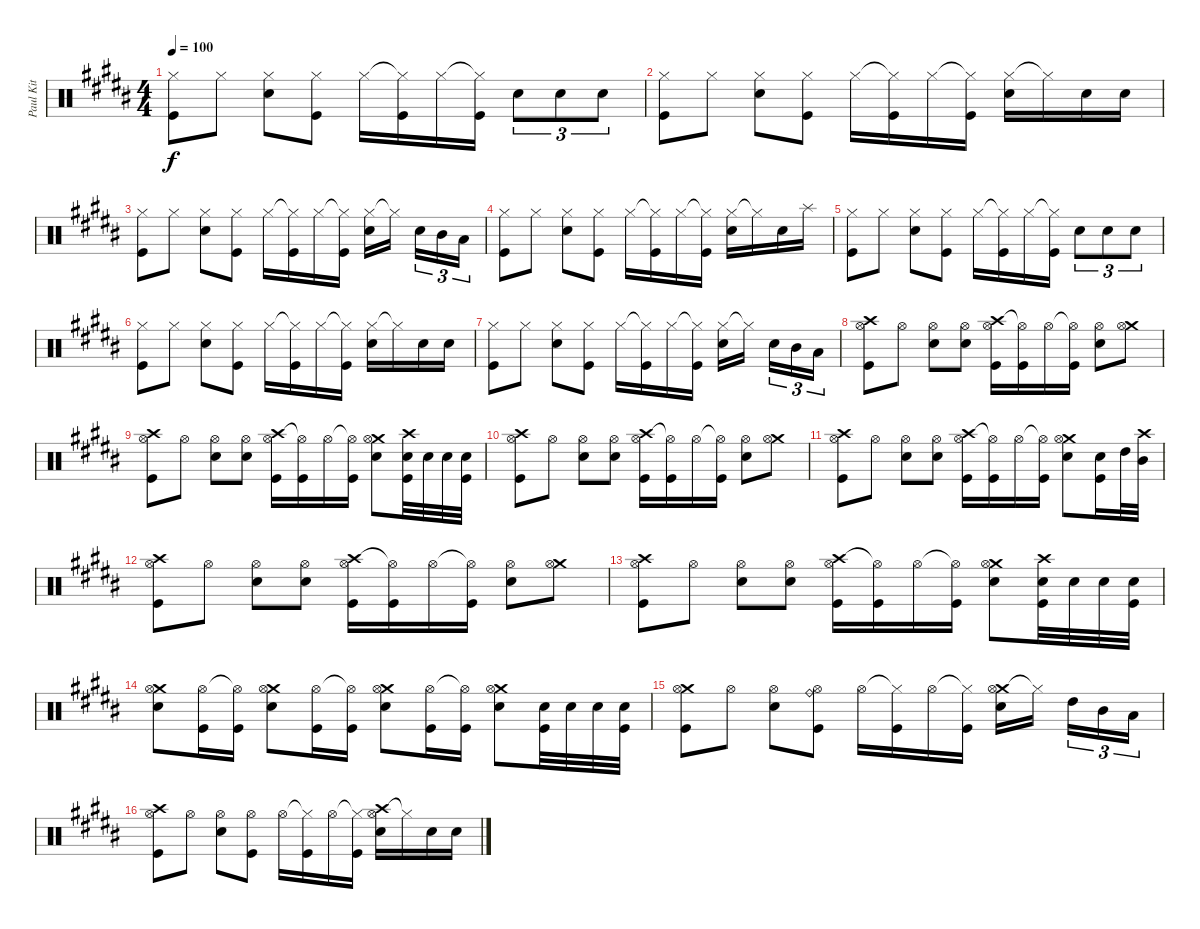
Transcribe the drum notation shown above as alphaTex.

\track ("Paul Kit" "Paul Kit") {instrument percussion}
\staff {score}
\articulation defaults
\ts (4 4)
\tempo 100
\clef neutral
\ks b
("Hi-Hat (closed)" "Kick (hit)").8{dy f} "Hi-Hat (closed)".8 ("Hi-Hat (closed)" "Snare (hit) 2").8 ("Hi-Hat (closed)" "Kick (hit)").8 "Hi-Hat (closed)".16 ("Hi-Hat (closed)"{t} "Kick (hit)").16 "Hi-Hat (closed)".16 ("Hi-Hat (closed)"{t} "Kick (hit)").16 "Snare (hit) 2".8{tu (3 2)} "Snare (hit) 2".8{tu (3 2)} "Snare (hit) 2".8{tu (3 2)} |
("Hi-Hat (closed)" "Kick (hit)").8 "Hi-Hat (closed)".8 ("Hi-Hat (closed)" "Snare (hit) 2").8 ("Hi-Hat (closed)" "Kick (hit)").8 "Hi-Hat (closed)".16 ("Hi-Hat (closed)"{t} "Kick (hit)").16 "Hi-Hat (closed)".16 ("Hi-Hat (closed)"{t} "Kick (hit)").16 ("Hi-Hat (closed)" "Snare (hit) 2").16 "Hi-Hat (closed)"{t}.16 "Snare (hit) 2".16 "Snare (hit) 2".16 |
("Hi-Hat (closed)" "Kick (hit)").8 "Hi-Hat (closed)".8 ("Hi-Hat (closed)" "Snare (hit) 2").8 ("Hi-Hat (closed)" "Kick (hit)").8 "Hi-Hat (closed)".16 ("Hi-Hat (closed)"{t} "Kick (hit)").16 "Hi-Hat (closed)".16 ("Hi-Hat (closed)"{t} "Kick (hit)").16 ("Hi-Hat (closed)" "Snare (hit) 2").16 "Hi-Hat (closed)"{t}.16 "Snare (hit) 2".16{tu (3 2)} "Mid Tom (hit)".16{tu (3 2)} "Low Tom (hit)".16{tu (3 2)} |
("Hi-Hat (closed)" "Kick (hit)").8 "Hi-Hat (closed)".8 ("Hi-Hat (closed)" "Snare (hit) 2").8 ("Hi-Hat (closed)" "Kick (hit)").8 "Hi-Hat (closed)".16 ("Hi-Hat (closed)"{t} "Kick (hit)").16 "Hi-Hat (closed)".16 ("Hi-Hat (closed)"{t} "Kick (hit)").16 ("Hi-Hat (closed)" "Snare (hit) 2").16 "Hi-Hat (closed)"{t}.16 "Snare (hit) 2".16 "Splash (hit)".16 |
("Hi-Hat (closed)" "Kick (hit)").8 "Hi-Hat (closed)".8 ("Hi-Hat (closed)" "Snare (hit) 2").8 ("Hi-Hat (closed)" "Kick (hit)").8 "Hi-Hat (closed)".16 ("Hi-Hat (closed)"{t} "Kick (hit)").16 "Hi-Hat (closed)".16 ("Hi-Hat (closed)"{t} "Kick (hit)").16 "Snare (hit) 2".8{tu (3 2)} "Snare (hit) 2".8{tu (3 2)} "Snare (hit) 2".8{tu (3 2)} |
("Hi-Hat (closed)" "Kick (hit)").8 "Hi-Hat (closed)".8 ("Hi-Hat (closed)" "Snare (hit) 2").8 ("Hi-Hat (closed)" "Kick (hit)").8 "Hi-Hat (closed)".16 ("Hi-Hat (closed)"{t} "Kick (hit)").16 "Hi-Hat (closed)".16 ("Hi-Hat (closed)"{t} "Kick (hit)").16 ("Hi-Hat (closed)" "Snare (hit) 2").16 "Hi-Hat (closed)"{t}.16 "Snare (hit) 2".16 "Snare (hit) 2".16 |
("Hi-Hat (closed)" "Kick (hit)").8 "Hi-Hat (closed)".8 ("Hi-Hat (closed)" "Snare (hit) 2").8 ("Hi-Hat (closed)" "Kick (hit)").8 "Hi-Hat (closed)".16 ("Hi-Hat (closed)"{t} "Kick (hit)").16 "Hi-Hat (closed)".16 ("Hi-Hat (closed)"{t} "Kick (hit)").16 ("Hi-Hat (closed)" "Snare (hit) 2").16 "Hi-Hat (closed)"{t}.16 "Snare (hit) 2".16{tu (3 2)} "Mid Tom (hit)".16{tu (3 2)} "Low Tom (hit)".16{tu (3 2)} |
("Crash high (hit)" "Hi-Hat (open)" "Kick (hit)").8 "Hi-Hat (open)".8 ("Hi-Hat (open)" "Snare (hit) 2").8 ("Hi-Hat (open)" "Snare (hit) 2").8 ("Crash high (hit)" "Hi-Hat (open)" "Kick (hit)").16 ("Hi-Hat (open)"{t} "Kick (hit)").16 "Hi-Hat (open)".16 ("Hi-Hat (open)"{t} "Kick (hit)").16 ("Hi-Hat (open)" "Snare (hit) 2").8 ("Crash medium (hit)" "Hi-Hat (open)").8 |
("Crash high (hit)" "Hi-Hat (open)" "Kick (hit)").8 "Hi-Hat (open)".8 ("Hi-Hat (open)" "Snare (hit) 2").8 ("Hi-Hat (open)" "Snare (hit) 2").8 ("Crash high (hit)" "Hi-Hat (open)" "Kick (hit)").16 ("Hi-Hat (open)"{t} "Kick (hit)").16 "Hi-Hat (open)".16 ("Hi-Hat (open)"{t} "Kick (hit)").16 ("Crash medium (hit)" "Hi-Hat (open)" "Snare (hit) 2").8 ("Crash high (hit)" "Snare (hit) 2" "Kick (hit)").32 "Snare (hit) 2".32 "Snare (hit) 2".32 ("Snare (hit) 2" "Kick (hit)").32 |
("Crash high (hit)" "Hi-Hat (open)" "Kick (hit)").8 "Hi-Hat (open)".8 ("Hi-Hat (open)" "Snare (hit) 2").8 ("Hi-Hat (open)" "Snare (hit) 2").8 ("Crash high (hit)" "Hi-Hat (open)" "Kick (hit)").16 ("Hi-Hat (open)"{t} "Kick (hit)").16 "Hi-Hat (open)".16 ("Hi-Hat (open)"{t} "Kick (hit)").16 ("Hi-Hat (open)" "Snare (hit) 2").8 ("Crash medium (hit)" "Hi-Hat (open)").8 |
("Crash high (hit)" "Hi-Hat (open)" "Kick (hit)").8 "Hi-Hat (open)".8 ("Hi-Hat (open)" "Snare (hit) 2").8 ("Hi-Hat (open)" "Snare (hit) 2").8 ("Crash high (hit)" "Hi-Hat (open)" "Kick (hit)").16 ("Hi-Hat (open)"{t} "Kick (hit)").16 "Hi-Hat (open)".16 ("Hi-Hat (open)"{t} "Kick (hit)").16 ("Crash medium (hit)" "Hi-Hat (open)" "Snare (hit) 2").8 ("Snare (hit) 2" "Kick (hit)").16 "High Tom (hit)".32 ("Crash high (hit)" "Mid Tom (hit)").32 |
("Crash high (hit)" "Hi-Hat (open)" "Kick (hit)").8 "Hi-Hat (open)".8 ("Hi-Hat (open)" "Snare (hit) 2").8 ("Hi-Hat (open)" "Snare (hit) 2").8 ("Crash high (hit)" "Hi-Hat (open)" "Kick (hit)").16 ("Hi-Hat (open)"{t} "Kick (hit)").16 "Hi-Hat (open)".16 ("Hi-Hat (open)"{t} "Kick (hit)").16 ("Hi-Hat (open)" "Snare (hit) 2").8 ("Crash medium (hit)" "Hi-Hat (open)").8 |
("Crash high (hit)" "Hi-Hat (open)" "Kick (hit)").8 "Hi-Hat (open)".8 ("Hi-Hat (open)" "Snare (hit) 2").8 ("Hi-Hat (open)" "Snare (hit) 2").8 ("Crash high (hit)" "Hi-Hat (open)" "Kick (hit)").16 ("Hi-Hat (open)"{t} "Kick (hit)").16 "Hi-Hat (open)".16 ("Hi-Hat (open)"{t} "Kick (hit)").16 ("Crash medium (hit)" "Hi-Hat (open)" "Snare (hit) 2").8 ("Crash high (hit)" "Snare (hit) 2" "Kick (hit)").32 "Snare (hit) 2".32 "Snare (hit) 2".32 ("Snare (hit) 2" "Kick (hit)").32 |
("Crash medium (hit)" "Hi-Hat (open)" "Snare (hit) 2").8 ("Hi-Hat (open)" "Kick (hit)").16 ("Hi-Hat (open)"{t} "Kick (hit)").16 ("Crash medium (hit)" "Hi-Hat (open)" "Snare (hit) 2").8 ("Hi-Hat (open)" "Kick (hit)").16 ("Hi-Hat (open)"{t} "Kick (hit)").16 ("Crash medium (hit)" "Hi-Hat (open)" "Snare (hit) 2").8 ("Hi-Hat (open)" "Kick (hit)").16 ("Hi-Hat (open)"{t} "Kick (hit)").16 ("Crash medium (hit)" "Hi-Hat (open)" "Snare (hit) 2").8 ("Snare (hit) 2" "Kick (hit)").32 "Snare (hit) 2".32 "Snare (hit) 2".32 ("Snare (hit) 2" "Kick (hit)").32 |
("Crash medium (hit)" "Hi-Hat (open)" "Kick (hit)").8 "Hi-Hat (open)".8 ("Hi-Hat (open)" "Snare (hit) 2").8 ("Ride (bell)" "Hi-Hat (open)" "Kick (hit)").8 "Hi-Hat (open)".16 ("Hi-Hat (closed)"{t} "Kick (hit)").16 "Hi-Hat (open)".16 ("Hi-Hat (closed)"{t} "Kick (hit)").16 ("Crash medium (hit)" "Hi-Hat (open)" "Snare (hit) 2").16 "Hi-Hat (closed)"{t}.16 "High Tom (hit)".16{tu (3 2)} "Mid Tom (hit)".16{tu (3 2)} "Low Tom (hit)".16{tu (3 2)} |
("Crash high (hit)" "Hi-Hat (open)" "Kick (hit)").8 "Hi-Hat (open)".8 ("Hi-Hat (open)" "Snare (hit) 2").8 ("Hi-Hat (open)" "Kick (hit)").8 "Hi-Hat (open)".16 ("Hi-Hat (closed)"{t} "Kick (hit)").16 "Hi-Hat (open)".16 ("Hi-Hat (closed)"{t} "Kick (hit)").16 ("Crash high (hit)" "Hi-Hat (open)" "Snare (hit) 2").16 "Hi-Hat (closed)"{t}.16 "Snare (hit) 2".16 "Snare (hit) 2".16
